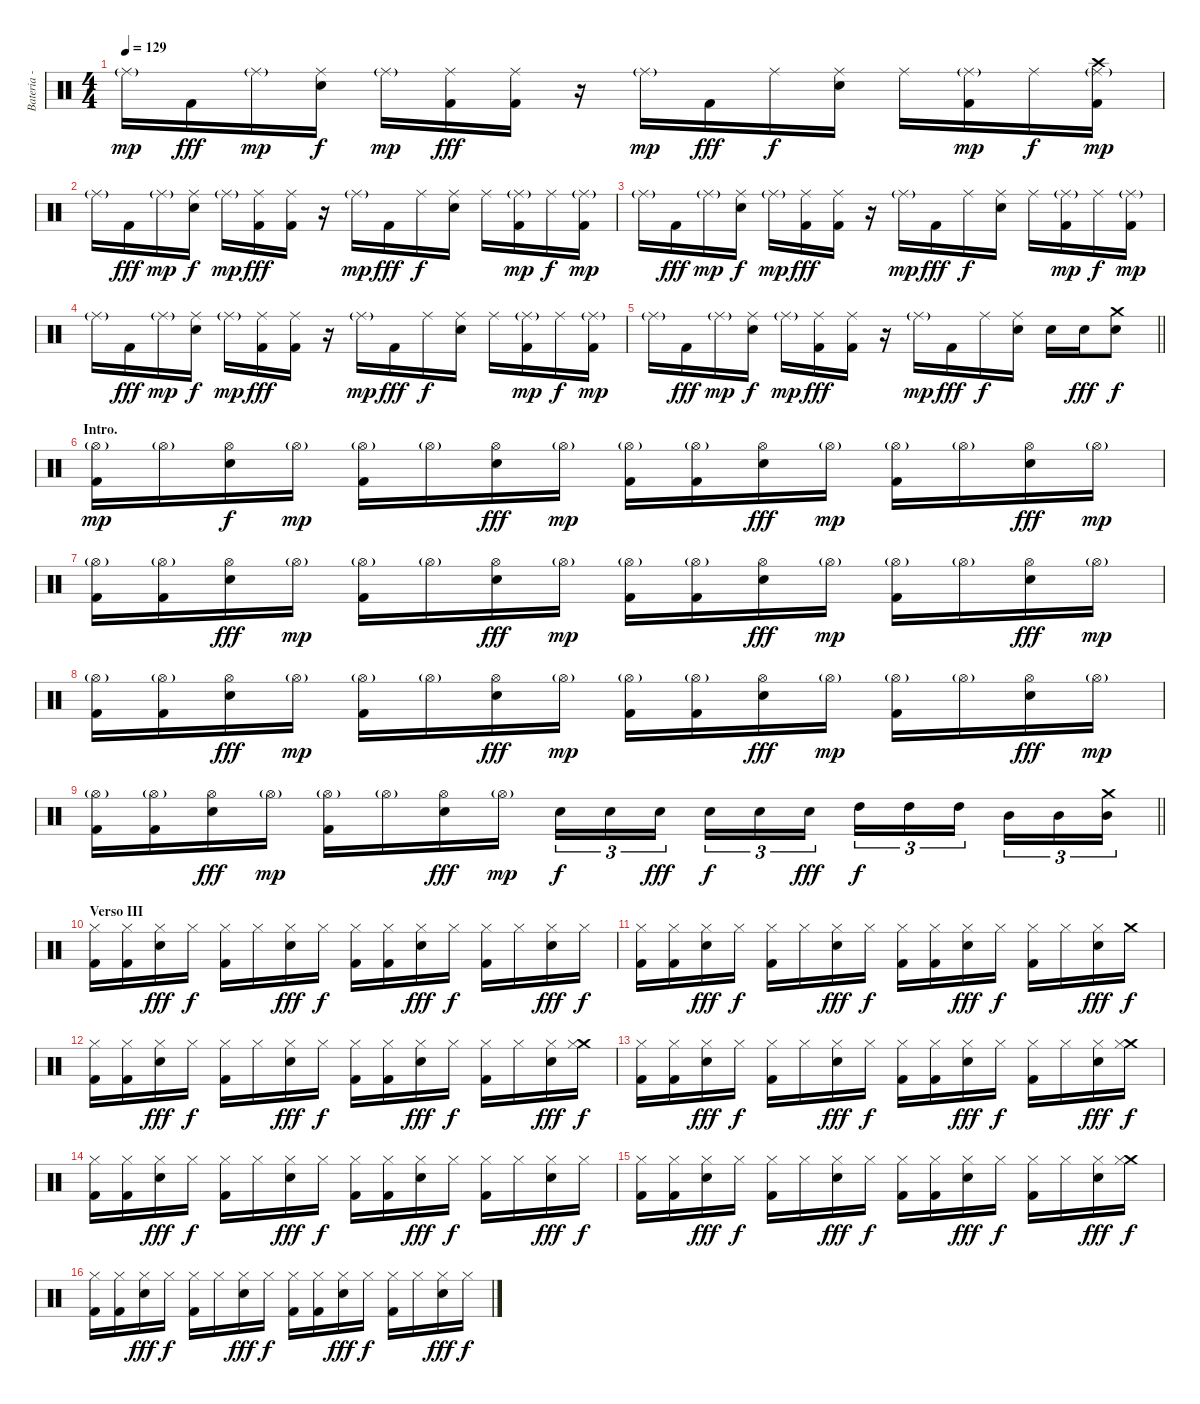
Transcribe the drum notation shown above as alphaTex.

\track ("Bateria - Larzon" "Bateria - ") {instrument percussion}
\staff {score}
\articulation defaults
\ts (4 4)
\tempo 129
\clef neutral
\ks c "Ride (middle)"{g}.16{dy mp} "Kick (hit) 2".16{dy fff} "Ride (middle)"{g}.16{dy mp}
("Electric Snare (hit)" "Ride (middle)").16{dy f} "Ride (middle)"{g}.16{dy mp} ("Kick (hit) 2" "Ride (middle)").16{dy fff} ("Kick (hit) 2" "Ride (middle)").16 r.16 "Ride (middle)"{g}.16{dy mp} "Kick (hit) 2".16{dy fff} "Ride (middle)".16{dy f} ("Electric Snare (hit)" "Ride (middle)").16 "Ride (middle)".16 ("Kick (hit) 2" "Ride (middle)"{g}).16{dy mp} "Ride (middle)".16{dy f} ("Kick (hit) 2" "Crash high (hit)" "Ride (middle)"{g}).16{dy mp} |
"Ride (middle)"{g}.16 "Kick (hit) 2".16{dy fff} "Ride (middle)"{g}.16{dy mp} ("Electric Snare (hit)" "Ride (middle)").16{dy f} "Ride (middle)"{g}.16{dy mp} ("Kick (hit) 2" "Ride (middle)").16{dy fff} ("Kick (hit) 2" "Ride (middle)").16 r.16 "Ride (middle)"{g}.16{dy mp} "Kick (hit) 2".16{dy fff} "Ride (middle)".16{dy f} ("Electric Snare (hit)" "Ride (middle)").16 "Ride (middle)".16 ("Kick (hit) 2" "Ride (middle)"{g}).16{dy mp} "Ride (middle)".16{dy f} ("Kick (hit) 2" "Ride (middle)"{g}).16{dy mp} |
"Ride (middle)"{g}.16 "Kick (hit) 2".16{dy fff} "Ride (middle)"{g}.16{dy mp} ("Electric Snare (hit)" "Ride (middle)").16{dy f} "Ride (middle)"{g}.16{dy mp} ("Kick (hit) 2" "Ride (middle)").16{dy fff} ("Kick (hit) 2" "Ride (middle)").16 r.16 "Ride (middle)"{g}.16{dy mp} "Kick (hit) 2".16{dy fff} "Ride (middle)".16{dy f} ("Electric Snare (hit)" "Ride (middle)").16 "Ride (middle)".16 ("Kick (hit) 2" "Ride (middle)"{g}).16{dy mp} "Ride (middle)".16{dy f} ("Kick (hit) 2" "Ride (middle)"{g}).16{dy mp} |
"Ride (middle)"{g}.16 "Kick (hit) 2".16{dy fff} "Ride (middle)"{g}.16{dy mp} ("Electric Snare (hit)" "Ride (middle)").16{dy f} "Ride (middle)"{g}.16{dy mp} ("Kick (hit) 2" "Ride (middle)").16{dy fff} ("Kick (hit) 2" "Ride (middle)").16 r.16 "Ride (middle)"{g}.16{dy mp} "Kick (hit) 2".16{dy fff} "Ride (middle)".16{dy f} ("Electric Snare (hit)" "Ride (middle)").16 "Ride (middle)".16 ("Kick (hit) 2" "Ride (middle)"{g}).16{dy mp} "Ride (middle)".16{dy f} ("Kick (hit) 2" "Ride (middle)"{g}).16{dy mp} |
\barLineRight lightlight "Ride (middle)"{g}.16 "Kick (hit) 2".16{dy fff} "Ride (middle)"{g}.16{dy mp}
("Electric Snare (hit)" "Ride (middle)").16{dy f} "Ride (middle)"{g}.16{dy mp} ("Kick (hit) 2" "Ride (middle)").16{dy fff} ("Kick (hit) 2" "Ride (middle)").16 r.16 "Ride (middle)"{g}.16{dy mp} "Kick (hit) 2".16{dy fff} "Ride (middle)".16{dy f} ("Electric Snare (hit)" "Ride (middle)").16 "Electric Snare (hit)".16 "Electric Snare (hit)".16{dy fff} ("Electric Snare (hit)" "Crash medium (hit)").8{dy f} |
\section ("" "Intro.")
("Kick (hit) 2" "Hi-Hat (open)"{g}).16{dy mp} "Hi-Hat (open)"{g}.16 ("Electric Snare (hit)" "Hi-Hat (open)").16{dy f} "Hi-Hat (open)"{g}.16{dy mp} ("Kick (hit) 2" "Hi-Hat (open)"{g}).16 "Hi-Hat (open)"{g}.16 ("Electric Snare (hit)" "Hi-Hat (open)").16{dy fff} "Hi-Hat (open)"{g}.16{dy mp} ("Kick (hit) 2" "Hi-Hat (open)"{g}).16 ("Kick (hit) 2" "Hi-Hat (open)"{g}).16 ("Electric Snare (hit)" "Hi-Hat (open)").16{dy fff} "Hi-Hat (open)"{g}.16{dy mp} ("Kick (hit) 2" "Hi-Hat (open)"{g}).16 "Hi-Hat (open)"{g}.16 ("Electric Snare (hit)" "Hi-Hat (open)").16{dy fff} "Hi-Hat (open)"{g}.16{dy mp} |
("Kick (hit) 2" "Hi-Hat (open)"{g}).16 ("Kick (hit) 2" "Hi-Hat (open)"{g}).16 ("Electric Snare (hit)" "Hi-Hat (open)").16{dy fff} "Hi-Hat (open)"{g}.16{dy mp} ("Kick (hit) 2" "Hi-Hat (open)"{g}).16 "Hi-Hat (open)"{g}.16 ("Electric Snare (hit)" "Hi-Hat (open)").16{dy fff} "Hi-Hat (open)"{g}.16{dy mp} ("Kick (hit) 2" "Hi-Hat (open)"{g}).16 ("Kick (hit) 2" "Hi-Hat (open)"{g}).16 ("Electric Snare (hit)" "Hi-Hat (open)").16{dy fff} "Hi-Hat (open)"{g}.16{dy mp} ("Kick (hit) 2" "Hi-Hat (open)"{g}).16 "Hi-Hat (open)"{g}.16 ("Electric Snare (hit)" "Hi-Hat (open)").16{dy fff} "Hi-Hat (open)"{g}.16{dy mp} |
("Kick (hit) 2" "Hi-Hat (open)"{g}).16 ("Kick (hit) 2" "Hi-Hat (open)"{g}).16 ("Electric Snare (hit)" "Hi-Hat (open)").16{dy fff} "Hi-Hat (open)"{g}.16{dy mp} ("Kick (hit) 2" "Hi-Hat (open)"{g}).16 "Hi-Hat (open)"{g}.16 ("Electric Snare (hit)" "Hi-Hat (open)").16{dy fff} "Hi-Hat (open)"{g}.16{dy mp} ("Kick (hit) 2" "Hi-Hat (open)"{g}).16 ("Kick (hit) 2" "Hi-Hat (open)"{g}).16 ("Electric Snare (hit)" "Hi-Hat (open)").16{dy fff} "Hi-Hat (open)"{g}.16{dy mp} ("Kick (hit) 2" "Hi-Hat (open)"{g}).16 "Hi-Hat (open)"{g}.16 ("Electric Snare (hit)" "Hi-Hat (open)").16{dy fff} "Hi-Hat (open)"{g}.16{dy mp} |
\barLineRight lightlight
("Kick (hit) 2" "Hi-Hat (open)"{g}).16 ("Kick (hit) 2" "Hi-Hat (open)"{g}).16 ("Electric Snare (hit)" "Hi-Hat (open)").16{dy fff} "Hi-Hat (open)"{g}.16{dy mp} ("Kick (hit) 2" "Hi-Hat (open)"{g}).16 "Hi-Hat (open)"{g}.16 ("Electric Snare (hit)" "Hi-Hat (open)").16{dy fff} "Hi-Hat (open)"{g}.16{dy mp} "Electric Snare (hit)".16{tu (3 2) dy f} "Electric Snare (hit)".16{tu (3 2)} "Electric Snare (hit)".16{tu (3 2) dy fff} "Electric Snare (hit)".16{tu (3 2) dy f} "Electric Snare (hit)".16{tu (3 2)} "Electric Snare (hit)".16{tu (3 2) dy fff} "High Tom (hit)".16{tu (3 2) dy f} "High Tom (hit)".16{tu (3 2)} "High Tom (hit)".16{tu (3 2)} "Mid Tom (hit)".16{tu (3 2)} "Mid Tom (hit)".16{tu (3 2)} ("Crash medium (hit)" "Mid Tom (hit)").16{tu (3 2)} |
\section ("" "Verso III")
("Kick (hit) 2" "Hi-Hat (closed)").16 ("Kick (hit) 2" "Hi-Hat (closed)").16 ("Electric Snare (hit)" "Hi-Hat (closed)").16{dy fff} "Hi-Hat (closed)".16{dy f} ("Kick (hit) 2" "Hi-Hat (closed)").16 "Hi-Hat (closed)".16 ("Electric Snare (hit)" "Hi-Hat (closed)").16{dy fff} "Hi-Hat (closed)".16{dy f} ("Kick (hit) 2" "Hi-Hat (closed)").16 ("Kick (hit) 2" "Hi-Hat (closed)").16 ("Electric Snare (hit)" "Hi-Hat (closed)").16{dy fff} "Hi-Hat (closed)".16{dy f} ("Kick (hit) 2" "Hi-Hat (closed)").16 "Hi-Hat (closed)".16 ("Electric Snare (hit)" "Hi-Hat (closed)").16{dy fff} "Hi-Hat (closed)".16{dy f} |
("Kick (hit) 2" "Hi-Hat (closed)").16 ("Kick (hit) 2" "Hi-Hat (closed)").16 ("Electric Snare (hit)" "Hi-Hat (closed)").16{dy fff} "Hi-Hat (closed)".16{dy f} ("Kick (hit) 2" "Hi-Hat (closed)").16 "Hi-Hat (closed)".16 ("Electric Snare (hit)" "Hi-Hat (closed)").16{dy fff} "Hi-Hat (closed)".16{dy f} ("Kick (hit) 2" "Hi-Hat (closed)").16 ("Kick (hit) 2" "Hi-Hat (closed)").16 ("Electric Snare (hit)" "Hi-Hat (closed)").16{dy fff} "Hi-Hat (closed)".16{dy f} ("Kick (hit) 2" "Hi-Hat (closed)").16 "Hi-Hat (closed)".16 ("Electric Snare (hit)" "Hi-Hat (closed)").16{dy fff} "Crash medium (hit)".16{dy f} |
("Kick (hit) 2" "Hi-Hat (closed)").16 ("Kick (hit) 2" "Hi-Hat (closed)").16 ("Electric Snare (hit)" "Hi-Hat (closed)").16{dy fff} "Hi-Hat (closed)".16{dy f} ("Kick (hit) 2" "Hi-Hat (closed)").16 "Hi-Hat (closed)".16 ("Electric Snare (hit)" "Hi-Hat (closed)").16{dy fff} "Hi-Hat (closed)".16{dy f} ("Kick (hit) 2" "Hi-Hat (closed)").16 ("Kick (hit) 2" "Hi-Hat (closed)").16 ("Electric Snare (hit)" "Hi-Hat (closed)").16{dy fff} "Hi-Hat (closed)".16{dy f} ("Kick (hit) 2" "Hi-Hat (closed)").16 "Hi-Hat (closed)".16 ("Electric Snare (hit)" "Hi-Hat (closed)").16{dy fff} ("Crash medium (hit)" "Hi-Hat (closed)").16{dy f} |
("Kick (hit) 2" "Hi-Hat (closed)").16 ("Kick (hit) 2" "Hi-Hat (closed)").16 ("Electric Snare (hit)" "Hi-Hat (closed)").16{dy fff} "Hi-Hat (closed)".16{dy f} ("Kick (hit) 2" "Hi-Hat (closed)").16 "Hi-Hat (closed)".16 ("Electric Snare (hit)" "Hi-Hat (closed)").16{dy fff} "Hi-Hat (closed)".16{dy f} ("Kick (hit) 2" "Hi-Hat (closed)").16 ("Kick (hit) 2" "Hi-Hat (closed)").16 ("Electric Snare (hit)" "Hi-Hat (closed)").16{dy fff} "Hi-Hat (closed)".16{dy f} ("Kick (hit) 2" "Hi-Hat (closed)").16 "Hi-Hat (closed)".16 ("Electric Snare (hit)" "Hi-Hat (closed)").16{dy fff} ("Crash medium (hit)" "Hi-Hat (closed)").16{dy f} |
("Kick (hit) 2" "Hi-Hat (closed)").16 ("Kick (hit) 2" "Hi-Hat (closed)").16 ("Electric Snare (hit)" "Hi-Hat (closed)").16{dy fff} "Hi-Hat (closed)".16{dy f} ("Kick (hit) 2" "Hi-Hat (closed)").16 "Hi-Hat (closed)".16 ("Electric Snare (hit)" "Hi-Hat (closed)").16{dy fff} "Hi-Hat (closed)".16{dy f} ("Kick (hit) 2" "Hi-Hat (closed)").16 ("Kick (hit) 2" "Hi-Hat (closed)").16 ("Electric Snare (hit)" "Hi-Hat (closed)").16{dy fff} "Hi-Hat (closed)".16{dy f} ("Kick (hit) 2" "Hi-Hat (closed)").16 "Hi-Hat (closed)".16 ("Electric Snare (hit)" "Hi-Hat (closed)").16{dy fff} "Hi-Hat (closed)".16{dy f} |
("Kick (hit) 2" "Hi-Hat (closed)").16 ("Kick (hit) 2" "Hi-Hat (closed)").16 ("Electric Snare (hit)" "Hi-Hat (closed)").16{dy fff} "Hi-Hat (closed)".16{dy f} ("Kick (hit) 2" "Hi-Hat (closed)").16 "Hi-Hat (closed)".16 ("Electric Snare (hit)" "Hi-Hat (closed)").16{dy fff} "Hi-Hat (closed)".16{dy f} ("Kick (hit) 2" "Hi-Hat (closed)").16 ("Kick (hit) 2" "Hi-Hat (closed)").16 ("Electric Snare (hit)" "Hi-Hat (closed)").16{dy fff} "Hi-Hat (closed)".16{dy f} ("Kick (hit) 2" "Hi-Hat (closed)").16 "Hi-Hat (closed)".16 ("Electric Snare (hit)" "Hi-Hat (closed)").16{dy fff} ("Crash medium (hit)" "Hi-Hat (closed)").16{dy f} |
("Kick (hit) 2" "Hi-Hat (closed)").16 ("Kick (hit) 2" "Hi-Hat (closed)").16 ("Electric Snare (hit)" "Hi-Hat (closed)").16{dy fff} "Hi-Hat (closed)".16{dy f} ("Kick (hit) 2" "Hi-Hat (closed)").16 "Hi-Hat (closed)".16 ("Electric Snare (hit)" "Hi-Hat (closed)").16{dy fff} "Hi-Hat (closed)".16{dy f} ("Kick (hit) 2" "Hi-Hat (closed)").16 ("Kick (hit) 2" "Hi-Hat (closed)").16 ("Electric Snare (hit)" "Hi-Hat (closed)").16{dy fff} "Hi-Hat (closed)".16{dy f} ("Kick (hit) 2" "Hi-Hat (closed)").16 "Hi-Hat (closed)".16 ("Electric Snare (hit)" "Hi-Hat (closed)").16{dy fff} "Hi-Hat (closed)".16{dy f}
